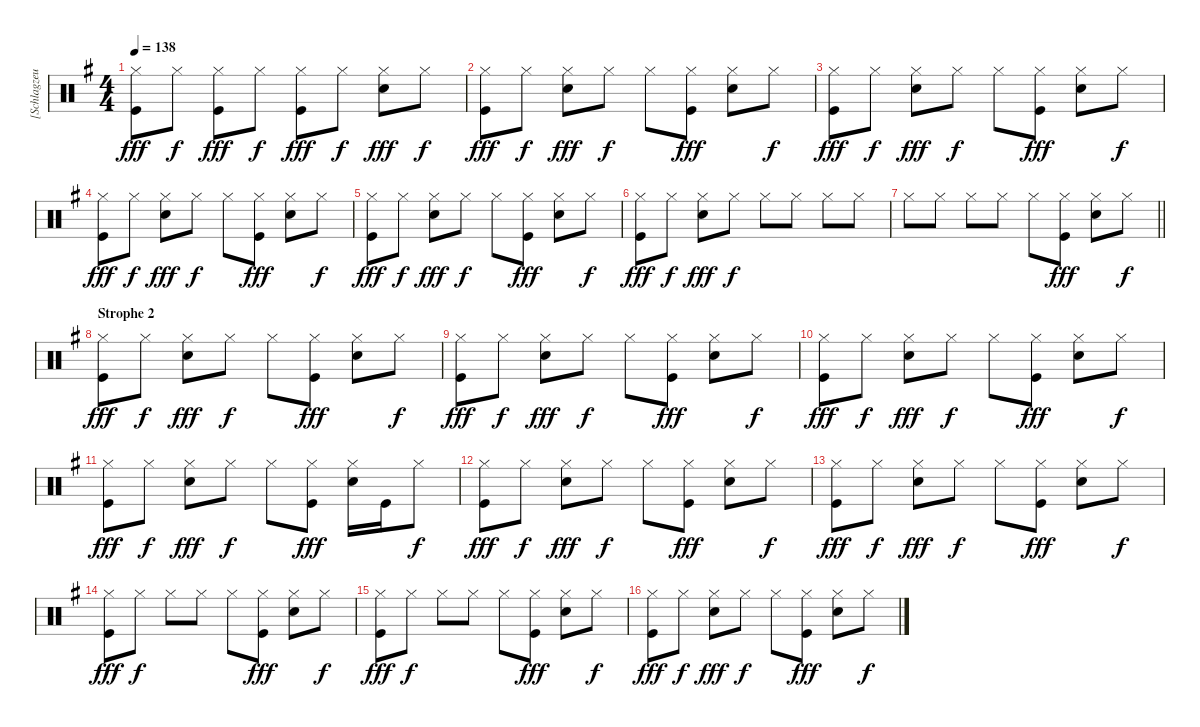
\track ("[Schlagzeug]" "[Schlagzeu") {instrument percussion}
\staff {score}
\articulation defaults
\ts (4 4)
\tempo 138
\clef neutral
\ks eminor
("Hi-Hat (closed)" "Kick (hit)").8{dy fff} "Hi-Hat (closed)".8{dy f} ("Hi-Hat (closed)" "Kick (hit)").8{dy fff} "Hi-Hat (closed)".8{dy f} ("Hi-Hat (closed)" "Kick (hit)").8{dy fff} "Hi-Hat (closed)".8{dy f} ("Hi-Hat (closed)" "Electric Snare (hit)").8{dy fff} "Hi-Hat (closed)".8{dy f} |
("Hi-Hat (closed)" "Kick (hit)").8{dy fff} "Hi-Hat (closed)".8{dy f} ("Hi-Hat (closed)" "Electric Snare (hit)").8{dy fff} "Hi-Hat (closed)".8{dy f} "Hi-Hat (closed)".8 ("Hi-Hat (closed)" "Kick (hit)").8{dy fff} ("Hi-Hat (closed)" "Electric Snare (hit)").8 "Hi-Hat (closed)".8{dy f} |
("Hi-Hat (closed)" "Kick (hit)").8{dy fff} "Hi-Hat (closed)".8{dy f} ("Hi-Hat (closed)" "Electric Snare (hit)").8{dy fff} "Hi-Hat (closed)".8{dy f} "Hi-Hat (closed)".8 ("Hi-Hat (closed)" "Kick (hit)").8{dy fff} ("Hi-Hat (closed)" "Electric Snare (hit)").8 "Hi-Hat (closed)".8{dy f} |
("Hi-Hat (closed)" "Kick (hit)").8{dy fff} "Hi-Hat (closed)".8{dy f} ("Hi-Hat (closed)" "Electric Snare (hit)").8{dy fff} "Hi-Hat (closed)".8{dy f} "Hi-Hat (closed)".8 ("Hi-Hat (closed)" "Kick (hit)").8{dy fff} ("Hi-Hat (closed)" "Electric Snare (hit)").8 "Hi-Hat (closed)".8{dy f} |
("Hi-Hat (closed)" "Kick (hit)").8{dy fff} "Hi-Hat (closed)".8{dy f} ("Hi-Hat (closed)" "Electric Snare (hit)").8{dy fff} "Hi-Hat (closed)".8{dy f} "Hi-Hat (closed)".8 ("Hi-Hat (closed)" "Kick (hit)").8{dy fff} ("Hi-Hat (closed)" "Electric Snare (hit)").8 "Hi-Hat (closed)".8{dy f} |
("Hi-Hat (closed)" "Kick (hit)").8{dy fff} "Hi-Hat (closed)".8{dy f} ("Hi-Hat (closed)" "Electric Snare (hit)").8{dy fff} "Hi-Hat (closed)".8{dy f} "Hi-Hat (closed)".8 "Hi-Hat (closed)".8 "Hi-Hat (closed)".8 "Hi-Hat (closed)".8 |
\barLineRight lightlight "Hi-Hat (closed)".8 "Hi-Hat (closed)".8 "Hi-Hat (closed)".8 "Hi-Hat (closed)".8 "Hi-Hat (closed)".8
("Hi-Hat (closed)" "Kick (hit)").8{dy fff} ("Hi-Hat (closed)" "Electric Snare (hit)").8 "Hi-Hat (closed)".8{dy f} |
\section ("" "Strophe 2")
("Hi-Hat (closed)" "Kick (hit)").8{dy fff} "Hi-Hat (closed)".8{dy f} ("Hi-Hat (closed)" "Electric Snare (hit)").8{dy fff} "Hi-Hat (closed)".8{dy f} "Hi-Hat (closed)".8 ("Hi-Hat (closed)" "Kick (hit)").8{dy fff} ("Hi-Hat (closed)" "Electric Snare (hit)").8 "Hi-Hat (closed)".8{dy f} |
("Hi-Hat (closed)" "Kick (hit)").8{dy fff} "Hi-Hat (closed)".8{dy f} ("Hi-Hat (closed)" "Electric Snare (hit)").8{dy fff} "Hi-Hat (closed)".8{dy f} "Hi-Hat (closed)".8 ("Hi-Hat (closed)" "Kick (hit)").8{dy fff} ("Hi-Hat (closed)" "Electric Snare (hit)").8 "Hi-Hat (closed)".8{dy f} |
("Hi-Hat (closed)" "Kick (hit)").8{dy fff} "Hi-Hat (closed)".8{dy f} ("Hi-Hat (closed)" "Electric Snare (hit)").8{dy fff} "Hi-Hat (closed)".8{dy f} "Hi-Hat (closed)".8 ("Hi-Hat (closed)" "Kick (hit)").8{dy fff} ("Hi-Hat (closed)" "Electric Snare (hit)").8 "Hi-Hat (closed)".8{dy f} |
("Hi-Hat (closed)" "Kick (hit)").8{dy fff} "Hi-Hat (closed)".8{dy f} ("Hi-Hat (closed)" "Electric Snare (hit)").8{dy fff} "Hi-Hat (closed)".8{dy f} "Hi-Hat (closed)".8 ("Hi-Hat (closed)" "Kick (hit)").8{dy fff} ("Hi-Hat (closed)" "Electric Snare (hit)").16 "Kick (hit)".16 "Hi-Hat (closed)".8{dy f} |
("Hi-Hat (closed)" "Kick (hit)").8{dy fff} "Hi-Hat (closed)".8{dy f} ("Hi-Hat (closed)" "Electric Snare (hit)").8{dy fff} "Hi-Hat (closed)".8{dy f} "Hi-Hat (closed)".8 ("Hi-Hat (closed)" "Kick (hit)").8{dy fff} ("Hi-Hat (closed)" "Electric Snare (hit)").8 "Hi-Hat (closed)".8{dy f} |
("Hi-Hat (closed)" "Kick (hit)").8{dy fff} "Hi-Hat (closed)".8{dy f} ("Hi-Hat (closed)" "Electric Snare (hit)").8{dy fff} "Hi-Hat (closed)".8{dy f} "Hi-Hat (closed)".8 ("Hi-Hat (closed)" "Kick (hit)").8{dy fff} ("Hi-Hat (closed)" "Electric Snare (hit)").8 "Hi-Hat (closed)".8{dy f} |
("Hi-Hat (closed)" "Kick (hit)").8{dy fff} "Hi-Hat (closed)".8{dy f} "Hi-Hat (closed)".8 "Hi-Hat (closed)".8 "Hi-Hat (closed)".8 ("Hi-Hat (closed)" "Kick (hit)").8{dy fff} ("Hi-Hat (closed)" "Electric Snare (hit)").8 "Hi-Hat (closed)".8{dy f} |
("Hi-Hat (closed)" "Kick (hit)").8{dy fff} "Hi-Hat (closed)".8{dy f} "Hi-Hat (closed)".8 "Hi-Hat (closed)".8 "Hi-Hat (closed)".8 ("Hi-Hat (closed)" "Kick (hit)").8{dy fff} ("Hi-Hat (closed)" "Electric Snare (hit)").8 "Hi-Hat (closed)".8{dy f} |
("Hi-Hat (closed)" "Kick (hit)").8{dy fff} "Hi-Hat (closed)".8{dy f} ("Hi-Hat (closed)" "Electric Snare (hit)").8{dy fff} "Hi-Hat (closed)".8{dy f} "Hi-Hat (closed)".8 ("Hi-Hat (closed)" "Kick (hit)").8{dy fff} ("Hi-Hat (closed)" "Electric Snare (hit)").8 "Hi-Hat (closed)".8{dy f}
